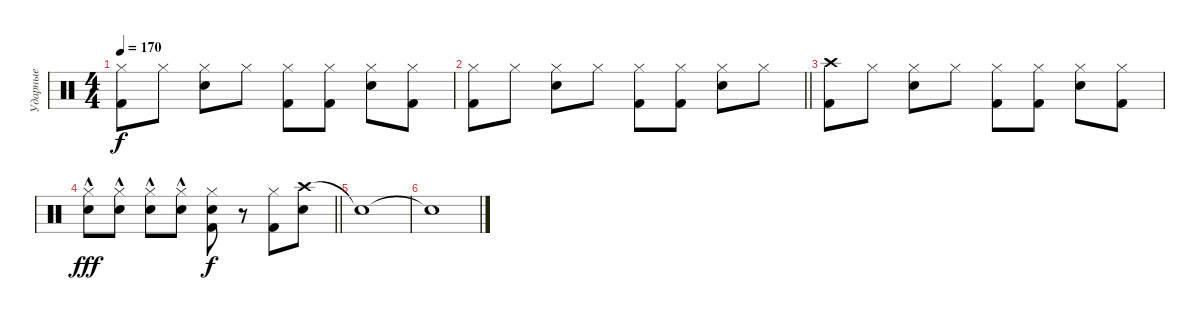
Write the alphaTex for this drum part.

\track ("Ударные" "Ударные") {instrument percussion}
\staff {score}
\articulation defaults
\ts (4 4)
\tempo 170
\clef neutral
\ks c
("Hi-Hat (closed)" "Kick (hit) 2").8{dy f} "Hi-Hat (closed)".8 ("Hi-Hat (closed)" "Snare (hit) 2").8 "Hi-Hat (closed)".8 ("Hi-Hat (closed)" "Kick (hit) 2").8 ("Hi-Hat (closed)" "Kick (hit) 2").8 ("Hi-Hat (closed)" "Snare (hit) 2").8 ("Hi-Hat (closed)" "Kick (hit) 2").8 |
\barLineRight lightlight
("Hi-Hat (closed)" "Kick (hit) 2").8 "Hi-Hat (closed)".8 ("Hi-Hat (closed)" "Snare (hit) 2").8 "Hi-Hat (closed)".8 ("Hi-Hat (closed)" "Kick (hit) 2").8 ("Hi-Hat (closed)" "Kick (hit) 2").8 ("Hi-Hat (closed)" "Snare (hit) 2").8 "Hi-Hat (closed)".8 |
("Crash high (hit)" "Kick (hit) 2").8 "Hi-Hat (closed)".8 ("Hi-Hat (closed)" "Snare (hit) 2").8 "Hi-Hat (closed)".8 ("Hi-Hat (closed)" "Kick (hit) 2").8 ("Hi-Hat (closed)" "Kick (hit) 2").8 ("Hi-Hat (closed)" "Snare (hit) 2").8 ("Hi-Hat (closed)" "Kick (hit) 2").8 |
\barLineRight lightlight
("Hi-Hat (closed)"{hac} "Snare (hit) 2"{hac}).8{dy fff} ("Hi-Hat (closed)"{hac} "Snare (hit) 2"{hac}).8 ("Hi-Hat (closed)"{hac} "Snare (hit) 2"{hac}).8 ("Hi-Hat (closed)"{hac} "Snare (hit) 2"{hac}).8 ("Hi-Hat (closed)" "Snare (hit) 2" "Kick (hit) 2").8{dy f} r.8 ("Hi-Hat (closed)" "Kick (hit) 2").8 ("Crash high (hit)" "Snare (hit) 2").8 |
"Snare (hit)"{t}.1 |
"Snare (hit)"{t}.1
